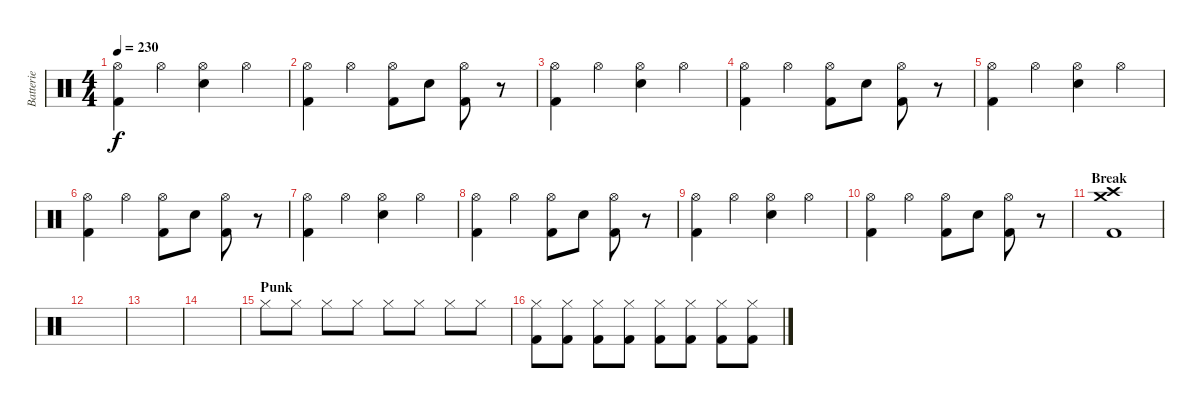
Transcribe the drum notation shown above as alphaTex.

\track ("Batterie" "Batterie") {instrument percussion}
\staff {score}
\articulation defaults
\ts (4 4)
\tempo 230
\clef neutral
\ks c
("Hi-Hat (open)" "Kick (hit) 2").4{dy f} "Hi-Hat (open)".4 ("Hi-Hat (open)" "Electric Snare (hit)").4 "Hi-Hat (open)".4 |
("Hi-Hat (open)" "Kick (hit) 2").4 "Hi-Hat (open)".4 ("Hi-Hat (open)" "Kick (hit) 2").8 "Electric Snare (hit)".8 ("Hi-Hat (open)" "Kick (hit) 2").8 r.8 |
("Hi-Hat (open)" "Kick (hit) 2").4 "Hi-Hat (open)".4 ("Hi-Hat (open)" "Electric Snare (hit)").4 "Hi-Hat (open)".4 |
("Hi-Hat (open)" "Kick (hit) 2").4 "Hi-Hat (open)".4 ("Hi-Hat (open)" "Kick (hit) 2").8 "Electric Snare (hit)".8 ("Hi-Hat (open)" "Kick (hit) 2").8 r.8 |
("Hi-Hat (open)" "Kick (hit) 2").4 "Hi-Hat (open)".4 ("Hi-Hat (open)" "Electric Snare (hit)").4 "Hi-Hat (open)".4 |
("Hi-Hat (open)" "Kick (hit) 2").4 "Hi-Hat (open)".4 ("Hi-Hat (open)" "Kick (hit) 2").8 "Electric Snare (hit)".8 ("Hi-Hat (open)" "Kick (hit) 2").8 r.8 |
("Hi-Hat (open)" "Kick (hit) 2").4 "Hi-Hat (open)".4 ("Hi-Hat (open)" "Electric Snare (hit)").4 "Hi-Hat (open)".4 |
("Hi-Hat (open)" "Kick (hit) 2").4 "Hi-Hat (open)".4 ("Hi-Hat (open)" "Kick (hit) 2").8 "Electric Snare (hit)".8 ("Hi-Hat (open)" "Kick (hit) 2").8 r.8 |
("Hi-Hat (open)" "Kick (hit) 2").4 "Hi-Hat (open)".4 ("Hi-Hat (open)" "Electric Snare (hit)").4 "Hi-Hat (open)".4 |
("Hi-Hat (open)" "Kick (hit) 2").4 "Hi-Hat (open)".4 ("Hi-Hat (open)" "Kick (hit) 2").8 "Electric Snare (hit)".8 ("Hi-Hat (open)" "Kick (hit) 2").8 r.8 |
\section ("" "Break")
("Crash high (hit)" "Crash medium (hit)" "Kick (hit) 2").1 |
|
|
|
\section ("" "Punk")
"Hi-Hat (closed)".8{volume 16} "Hi-Hat (closed)".8 "Hi-Hat (closed)".8 "Hi-Hat (closed)".8 "Hi-Hat (closed)".8 "Hi-Hat (closed)".8 "Hi-Hat (closed)".8 "Hi-Hat (closed)".8 |
("Hi-Hat (closed)" "Kick (hit) 2").8 ("Hi-Hat (closed)" "Kick (hit) 2").8 ("Hi-Hat (closed)" "Kick (hit) 2").8 ("Hi-Hat (closed)" "Kick (hit) 2").8 ("Hi-Hat (closed)" "Kick (hit) 2").8 ("Hi-Hat (closed)" "Kick (hit) 2").8 ("Hi-Hat (closed)" "Kick (hit) 2").8 ("Hi-Hat (closed)" "Kick (hit) 2").8
